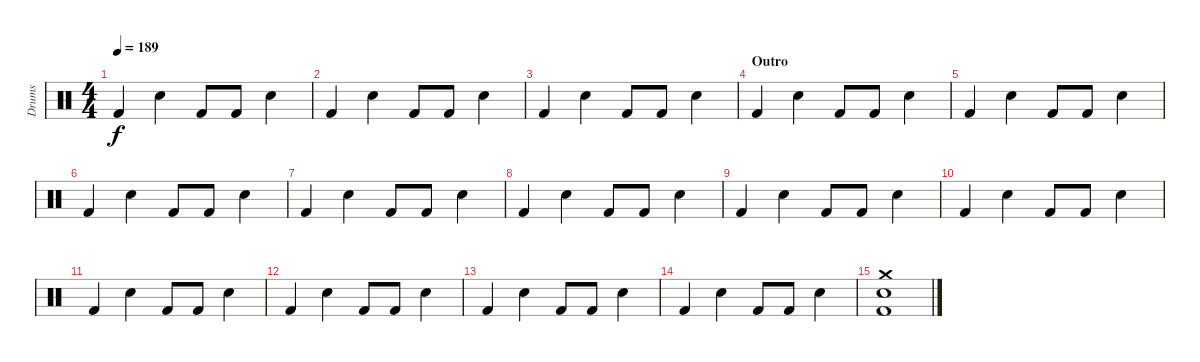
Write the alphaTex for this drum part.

\track ("Drums" "Drums") {instrument percussion}
\staff {score}
\articulation defaults
\ts (4 4)
\tempo 189
\clef neutral
\ks c "Kick (hit) 2".4{dy f} "Electric Snare (hit)".4 "Kick (hit) 2".8 "Kick (hit) 2".8 "Electric Snare (hit)".4
|
"Kick (hit) 2".4 "Electric Snare (hit)".4 "Kick (hit) 2".8 "Kick (hit) 2".8 "Electric Snare (hit)".4 |
"Kick (hit) 2".4 "Electric Snare (hit)".4 "Kick (hit) 2".8 "Kick (hit) 2".8 "Electric Snare (hit)".4 |
\section ("" "Outro")
"Kick (hit) 2".4 "Electric Snare (hit)".4 "Kick (hit) 2".8 "Kick (hit) 2".8 "Electric Snare (hit)".4 |
"Kick (hit) 2".4 "Electric Snare (hit)".4 "Kick (hit) 2".8 "Kick (hit) 2".8 "Electric Snare (hit)".4 |
"Kick (hit) 2".4 "Electric Snare (hit)".4 "Kick (hit) 2".8 "Kick (hit) 2".8 "Electric Snare (hit)".4 |
"Kick (hit) 2".4 "Electric Snare (hit)".4 "Kick (hit) 2".8 "Kick (hit) 2".8 "Electric Snare (hit)".4 |
"Kick (hit) 2".4 "Electric Snare (hit)".4 "Kick (hit) 2".8 "Kick (hit) 2".8 "Electric Snare (hit)".4 |
"Kick (hit) 2".4 "Electric Snare (hit)".4 "Kick (hit) 2".8 "Kick (hit) 2".8 "Electric Snare (hit)".4 |
"Kick (hit) 2".4 "Electric Snare (hit)".4 "Kick (hit) 2".8 "Kick (hit) 2".8 "Electric Snare (hit)".4 |
"Kick (hit) 2".4 "Electric Snare (hit)".4 "Kick (hit) 2".8 "Kick (hit) 2".8 "Electric Snare (hit)".4 |
"Kick (hit) 2".4 "Electric Snare (hit)".4 "Kick (hit) 2".8 "Kick (hit) 2".8 "Electric Snare (hit)".4 |
"Kick (hit) 2".4 "Electric Snare (hit)".4 "Kick (hit) 2".8 "Kick (hit) 2".8 "Electric Snare (hit)".4 |
"Kick (hit) 2".4 "Electric Snare (hit)".4 "Kick (hit) 2".8 "Kick (hit) 2".8 "Electric Snare (hit)".4 |
("Crash medium (hit)" "Kick (hit) 2" "Snare (hit) 2").1
